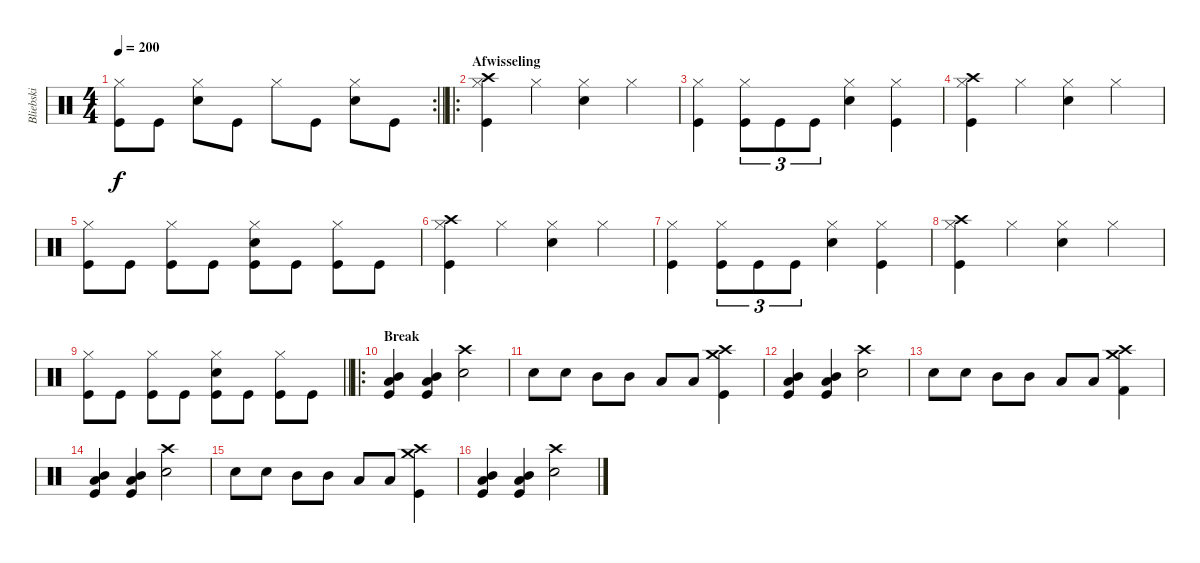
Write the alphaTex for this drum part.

\track ("Bliebski" "Bliebski") {instrument percussion}
\staff {score}
\articulation defaults
\rc 2
\ts (4 4)
\tempo 200
\clef neutral
\barLineRight lightlight
\ks c
("Hi-Hat (closed)" "Kick (hit)").8{dy f} "Kick (hit)".8 ("Hi-Hat (closed)" "Snare (hit) 2").8 "Kick (hit)".8 "Hi-Hat (closed)".8 "Kick (hit)".8 ("Hi-Hat (closed)" "Snare (hit) 2").8 "Kick (hit)".8 |
\ro
\section ("" "Afwisseling")
("Crash high (hit)" "Hi-Hat (closed)" "Kick (hit)").4 "Hi-Hat (closed)".4 ("Hi-Hat (closed)" "Snare (hit) 2").4 "Hi-Hat (closed)".4 |
("Hi-Hat (closed)" "Kick (hit)").4 ("Hi-Hat (closed)" "Kick (hit)").8{tu (3 2)} "Kick (hit)".8{tu (3 2)} "Kick (hit)".8{tu (3 2)} ("Hi-Hat (closed)" "Snare (hit) 2").4 ("Hi-Hat (closed)" "Kick (hit)").4 |
("Crash high (hit)" "Hi-Hat (closed)" "Kick (hit)").4 "Hi-Hat (closed)".4 ("Hi-Hat (closed)" "Snare (hit) 2").4 "Hi-Hat (closed)".4 |
("Hi-Hat (closed)" "Kick (hit)").8 "Kick (hit)".8 ("Hi-Hat (closed)" "Kick (hit)").8 "Kick (hit)".8 ("Hi-Hat (closed)" "Kick (hit)" "Snare (hit) 2").8 "Kick (hit)".8 ("Hi-Hat (closed)" "Kick (hit)").8 "Kick (hit)".8 |
("Crash high (hit)" "Hi-Hat (closed)" "Kick (hit)").4 "Hi-Hat (closed)".4 ("Hi-Hat (closed)" "Snare (hit) 2").4 "Hi-Hat (closed)".4 |
("Hi-Hat (closed)" "Kick (hit)").4 ("Hi-Hat (closed)" "Kick (hit)").8{tu (3 2)} "Kick (hit)".8{tu (3 2)} "Kick (hit)".8{tu (3 2)} ("Hi-Hat (closed)" "Snare (hit) 2").4 ("Hi-Hat (closed)" "Kick (hit)").4 |
("Crash high (hit)" "Hi-Hat (closed)" "Kick (hit)").4 "Hi-Hat (closed)".4 ("Hi-Hat (closed)" "Snare (hit) 2").4 "Hi-Hat (closed)".4 |
\barLineRight lightlight
("Hi-Hat (closed)" "Kick (hit)").8 "Kick (hit)".8 ("Hi-Hat (closed)" "Kick (hit)").8 "Kick (hit)".8 ("Hi-Hat (closed)" "Kick (hit)" "Snare (hit) 2").8 "Kick (hit)".8 ("Hi-Hat (closed)" "Kick (hit)").8 "Kick (hit)".8 |
\ro
\section ("" "Break")
("Kick (hit)" "Low Tom (hit)" "Mid Tom (hit)").4 ("Kick (hit)" "Low Tom (hit)" "Mid Tom (hit)").4 ("Crash high (hit)" "Snare (hit) 2").2 |
"Snare (hit) 2".8 "Snare (hit) 2".8 "Mid Tom (hit)".8 "Mid Tom (hit)".8 "Low Tom (hit)".8 "Low Tom (hit)".8 ("Kick (hit)" "Crash medium (hit)" "Crash high (hit)").4 |
("Kick (hit)" "Low Tom (hit)" "Mid Tom (hit)").4 ("Kick (hit)" "Low Tom (hit)" "Mid Tom (hit)").4 ("Crash high (hit)" "Snare (hit) 2").2 |
"Snare (hit) 2".8 "Snare (hit) 2".8 "Mid Tom (hit)".8 "Mid Tom (hit)".8 "Low Tom (hit)".8 "Low Tom (hit)".8 ("Kick (hit) 2" "Crash medium (hit)" "Crash high (hit)").4 |
("Kick (hit)" "Low Tom (hit)" "Mid Tom (hit)").4 ("Kick (hit)" "Low Tom (hit)" "Mid Tom (hit)").4 ("Crash high (hit)" "Snare (hit) 2").2 |
"Snare (hit) 2".8 "Snare (hit) 2".8 "Mid Tom (hit)".8 "Mid Tom (hit)".8 "Low Tom (hit)".8 "Low Tom (hit)".8 ("Kick (hit)" "Crash medium (hit)" "Crash high (hit)").4 |
("Kick (hit)" "Low Tom (hit)" "Mid Tom (hit)").4 ("Kick (hit)" "Low Tom (hit)" "Mid Tom (hit)").4 ("Crash high (hit)" "Snare (hit) 2").2
